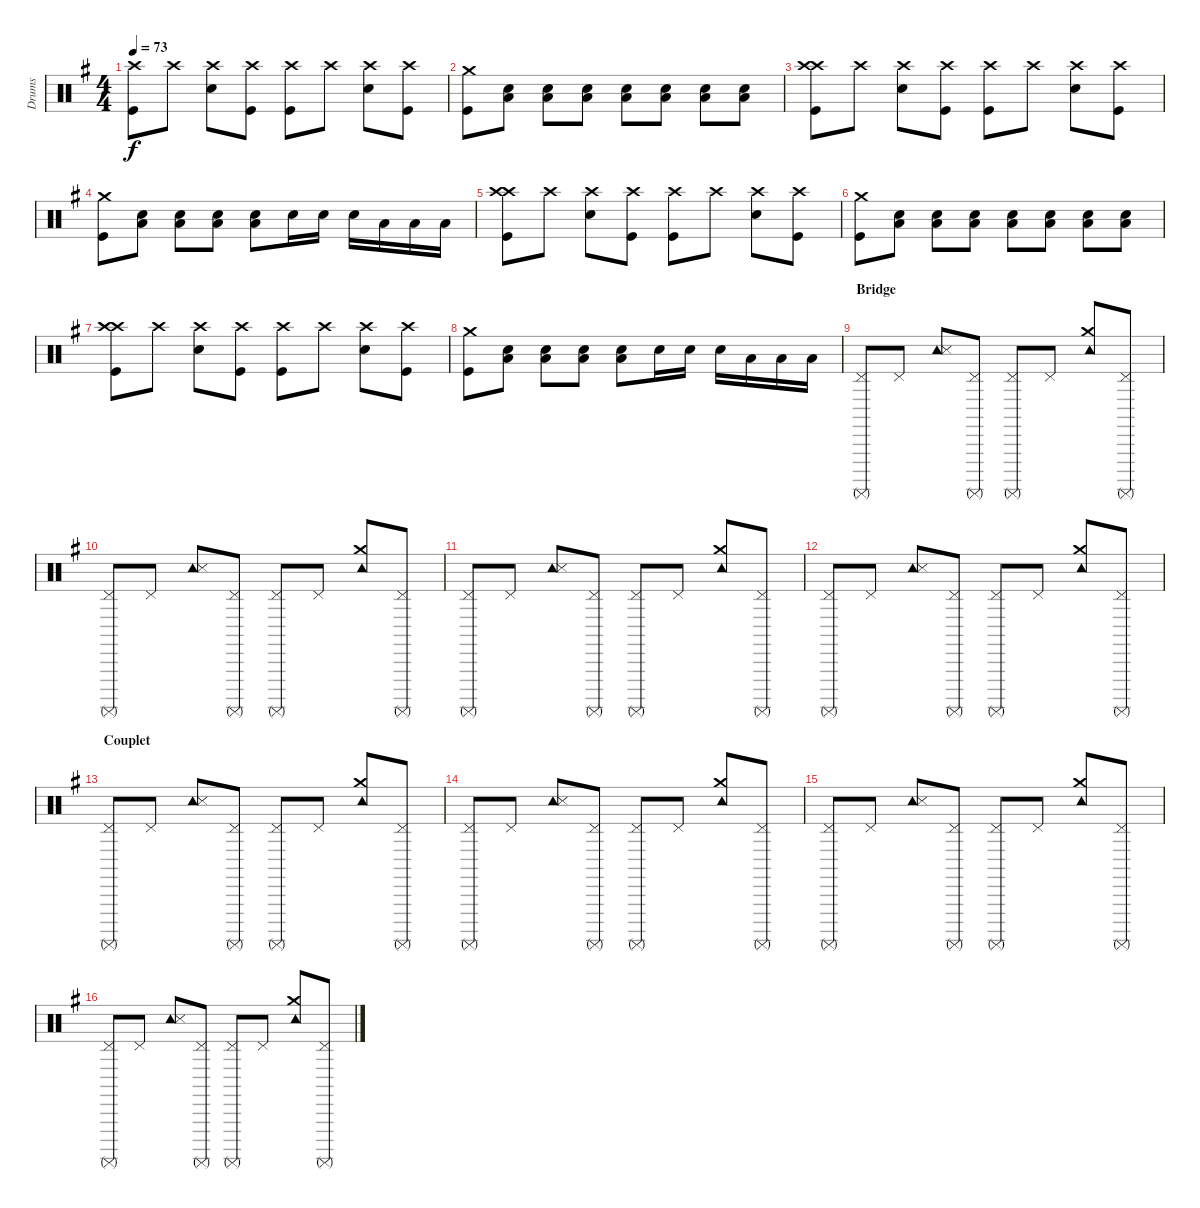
\track ("Drums" "Drums") {instrument percussion}
\staff {score}
\articulation defaults
\ts (4 4)
\tempo 73
\clef neutral
\ks g
("Crash high (hit)" "Kick (hit)").8{dy f} "Crash high (hit)".8 ("Crash high (hit)" "Electric Snare (hit)").8 ("Crash high (hit)" "Kick (hit)").8 ("Crash high (hit)" "Kick (hit)").8 "Crash high (hit)".8 ("Crash high (hit)" "Electric Snare (hit)").8 ("Crash high (hit)" "Kick (hit)").8 |
("Crash medium (hit)" "Kick (hit)").8 ("Low Floor Tom (hit)" "Electric Snare (hit)").8 ("Low Floor Tom (hit)" "Electric Snare (hit)").8 ("Low Floor Tom (hit)" "Electric Snare (hit)").8 ("Low Floor Tom (hit)" "Electric Snare (hit)").8 ("Low Floor Tom (hit)" "Electric Snare (hit)").8 ("Low Floor Tom (hit)" "Electric Snare (hit)").8 ("Low Floor Tom (hit)" "Electric Snare (hit)").8 |
("Crash high (hit)" "Crash high (hit)" "Kick (hit)").8 "Crash high (hit)".8 ("Crash high (hit)" "Electric Snare (hit)").8 ("Crash high (hit)" "Kick (hit)").8 ("Crash high (hit)" "Kick (hit)").8 "Crash high (hit)".8 ("Crash high (hit)" "Electric Snare (hit)").8 ("Crash high (hit)" "Kick (hit)").8 |
("Crash medium (hit)" "Kick (hit)").8 ("Low Floor Tom (hit)" "Electric Snare (hit)").8 ("Low Floor Tom (hit)" "Electric Snare (hit)").8 ("Low Floor Tom (hit)" "Electric Snare (hit)").8 ("Low Floor Tom (hit)" "Electric Snare (hit)").8 "Electric Snare (hit)".16 "Electric Snare (hit)".16 "Electric Snare (hit)".16 "Low Tom (hit)".16 "Low Tom (hit)".16 "Low Tom (hit)".16 |
("Crash high (hit)" "Crash high (hit)" "Kick (hit)").8 "Crash high (hit)".8 ("Crash high (hit)" "Electric Snare (hit)").8 ("Crash high (hit)" "Kick (hit)").8 ("Crash high (hit)" "Kick (hit)").8 "Crash high (hit)".8 ("Crash high (hit)" "Electric Snare (hit)").8 ("Crash high (hit)" "Kick (hit)").8 |
("Crash medium (hit)" "Kick (hit)").8 ("Low Floor Tom (hit)" "Electric Snare (hit)").8 ("Low Floor Tom (hit)" "Electric Snare (hit)").8 ("Low Floor Tom (hit)" "Electric Snare (hit)").8 ("Low Floor Tom (hit)" "Electric Snare (hit)").8 ("Low Floor Tom (hit)" "Electric Snare (hit)").8 ("Low Floor Tom (hit)" "Electric Snare (hit)").8 ("Low Floor Tom (hit)" "Electric Snare (hit)").8 |
("Crash high (hit)" "Crash high (hit)" "Kick (hit)").8 "Crash high (hit)".8 ("Crash high (hit)" "Electric Snare (hit)").8 ("Crash high (hit)" "Kick (hit)").8 ("Crash high (hit)" "Kick (hit)").8 "Crash high (hit)".8 ("Crash high (hit)" "Electric Snare (hit)").8 ("Crash high (hit)" "Kick (hit)").8 |
("Crash medium (hit)" "Kick (hit)").8 ("Low Floor Tom (hit)" "Electric Snare (hit)").8 ("Low Floor Tom (hit)" "Electric Snare (hit)").8 ("Low Floor Tom (hit)" "Electric Snare (hit)").8 ("Low Floor Tom (hit)" "Electric Snare (hit)").8 "Electric Snare (hit)".16 "Electric Snare (hit)".16 "Electric Snare (hit)".16 "Low Tom (hit)".16 "Low Tom (hit)".16 "Low Tom (hit)".16 |
\section ("" "Bridge")
("Pedal Hi-Hat (hit)" "Surdo (mute)").8 "Pedal Hi-Hat (hit)".8 ("Tambourine (hit)" "Snare (side stick) 3").8 ("Pedal Hi-Hat (hit)" "Surdo (mute)").8 ("Pedal Hi-Hat (hit)" "Surdo (mute)").8 "Pedal Hi-Hat (hit)".8 ("Tambourine (hit)" "Crash medium (hit)").8 ("Pedal Hi-Hat (hit)" "Surdo (mute)").8 |
("Pedal Hi-Hat (hit)" "Surdo (mute)").8 "Pedal Hi-Hat (hit)".8 ("Tambourine (hit)" "Snare (side stick) 3").8 ("Pedal Hi-Hat (hit)" "Surdo (mute)").8 ("Pedal Hi-Hat (hit)" "Surdo (mute)").8 "Pedal Hi-Hat (hit)".8 ("Tambourine (hit)" "Crash medium (hit)").8 ("Pedal Hi-Hat (hit)" "Surdo (mute)").8 |
("Pedal Hi-Hat (hit)" "Surdo (mute)").8 "Pedal Hi-Hat (hit)".8 ("Tambourine (hit)" "Snare (side stick) 3").8 ("Pedal Hi-Hat (hit)" "Surdo (mute)").8 ("Pedal Hi-Hat (hit)" "Surdo (mute)").8 "Pedal Hi-Hat (hit)".8 ("Tambourine (hit)" "Crash medium (hit)").8 ("Pedal Hi-Hat (hit)" "Surdo (mute)").8 |
("Pedal Hi-Hat (hit)" "Surdo (mute)").8 "Pedal Hi-Hat (hit)".8 ("Tambourine (hit)" "Snare (side stick) 3").8 ("Pedal Hi-Hat (hit)" "Surdo (mute)").8 ("Pedal Hi-Hat (hit)" "Surdo (mute)").8 "Pedal Hi-Hat (hit)".8 ("Tambourine (hit)" "Crash medium (hit)").8 ("Pedal Hi-Hat (hit)" "Surdo (mute)").8 |
\section ("" "Couplet")
("Pedal Hi-Hat (hit)" "Surdo (mute)").8 "Pedal Hi-Hat (hit)".8 ("Tambourine (hit)" "Snare (side stick) 3").8 ("Pedal Hi-Hat (hit)" "Surdo (mute)").8 ("Pedal Hi-Hat (hit)" "Surdo (mute)").8 "Pedal Hi-Hat (hit)".8 ("Tambourine (hit)" "Crash medium (hit)").8 ("Pedal Hi-Hat (hit)" "Surdo (mute)").8 |
("Pedal Hi-Hat (hit)" "Surdo (mute)").8 "Pedal Hi-Hat (hit)".8 ("Tambourine (hit)" "Snare (side stick) 3").8 ("Pedal Hi-Hat (hit)" "Surdo (mute)").8 ("Pedal Hi-Hat (hit)" "Surdo (mute)").8 "Pedal Hi-Hat (hit)".8 ("Tambourine (hit)" "Crash medium (hit)").8 ("Pedal Hi-Hat (hit)" "Surdo (mute)").8 |
("Pedal Hi-Hat (hit)" "Surdo (mute)").8 "Pedal Hi-Hat (hit)".8 ("Tambourine (hit)" "Snare (side stick) 3").8 ("Pedal Hi-Hat (hit)" "Surdo (mute)").8 ("Pedal Hi-Hat (hit)" "Surdo (mute)").8 "Pedal Hi-Hat (hit)".8 ("Tambourine (hit)" "Crash medium (hit)").8 ("Pedal Hi-Hat (hit)" "Surdo (mute)").8 |
("Pedal Hi-Hat (hit)" "Surdo (mute)").8 "Pedal Hi-Hat (hit)".8 ("Tambourine (hit)" "Snare (side stick) 3").8 ("Pedal Hi-Hat (hit)" "Surdo (mute)").8 ("Pedal Hi-Hat (hit)" "Surdo (mute)").8 "Pedal Hi-Hat (hit)".8 ("Tambourine (hit)" "Crash medium (hit)").8 ("Pedal Hi-Hat (hit)" "Surdo (mute)").8
